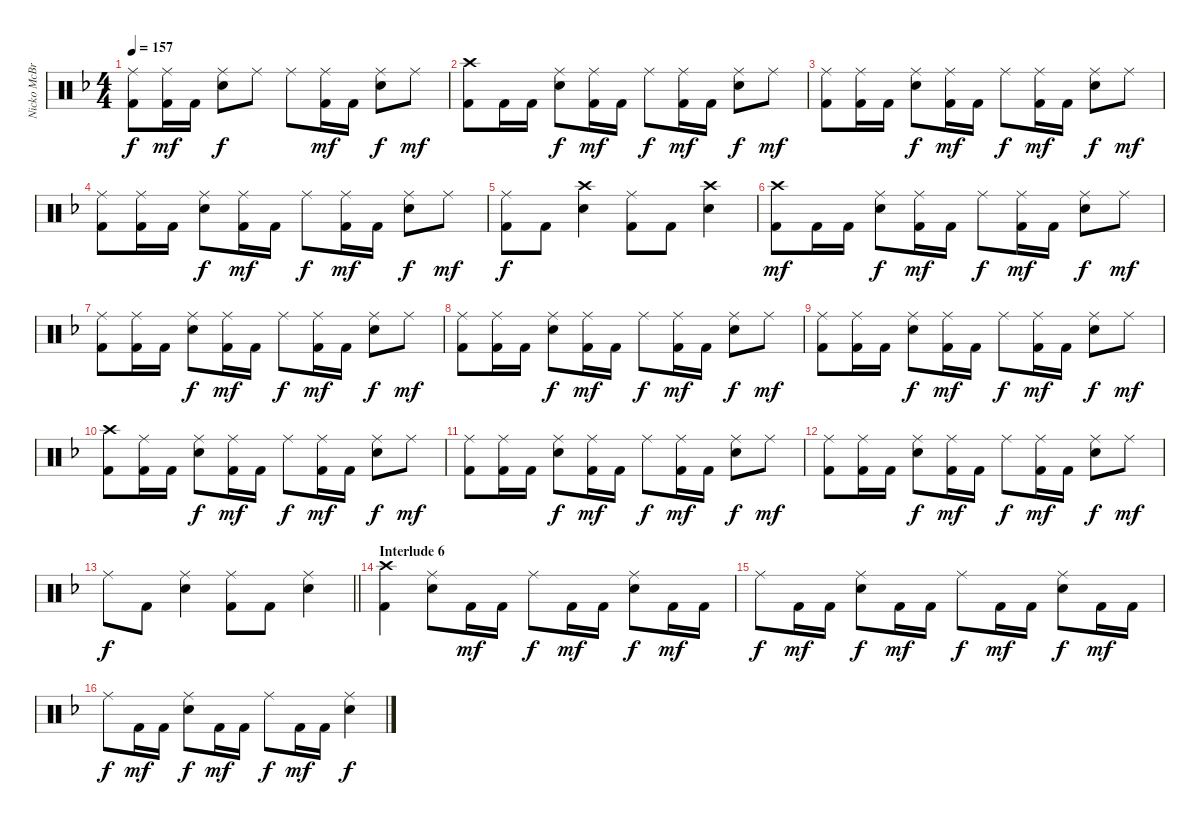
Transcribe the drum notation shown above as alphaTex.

\track ("Nicko McBrain" "Nicko McBr") {instrument percussion}
\staff {score}
\articulation defaults
\ts (4 4)
\tempo 157
\clef neutral
\ks f
("Ride (middle)" "Kick (hit) 2").8{dy f} ("Ride (middle)" "Kick (hit) 2").16{dy mf} "Kick (hit) 2".16 ("Ride (middle)" "Electric Snare (hit)").8{dy f} "Ride (middle)".8 "Ride (middle)".8 ("Ride (middle)" "Kick (hit) 2").16{dy mf} "Kick (hit) 2".16 ("Ride (middle)" "Electric Snare (hit)").8{dy f} "Ride (middle)".8{dy mf} |
("Crash high (hit)" "Kick (hit) 2").8 "Kick (hit) 2".16 "Kick (hit) 2".16 ("Ride (middle)" "Electric Snare (hit)").8{dy f} ("Ride (middle)" "Kick (hit) 2").16{dy mf} "Kick (hit) 2".16 "Ride (middle)".8{dy f} ("Ride (middle)" "Kick (hit) 2").16{dy mf} "Kick (hit) 2".16 ("Ride (middle)" "Electric Snare (hit)").8{dy f} "Ride (middle)".8{dy mf} |
("Ride (middle)" "Kick (hit) 2").8 ("Ride (middle)" "Kick (hit) 2").16 "Kick (hit) 2".16 ("Ride (middle)" "Electric Snare (hit)").8{dy f} ("Ride (middle)" "Kick (hit) 2").16{dy mf} "Kick (hit) 2".16 "Ride (middle)".8{dy f} ("Ride (middle)" "Kick (hit) 2").16{dy mf} "Kick (hit) 2".16 ("Ride (middle)" "Electric Snare (hit)").8{dy f} "Ride (middle)".8{dy mf} |
("Ride (middle)" "Kick (hit) 2").8 ("Ride (middle)" "Kick (hit) 2").16 "Kick (hit) 2".16 ("Ride (middle)" "Electric Snare (hit)").8{dy f} ("Ride (middle)" "Kick (hit) 2").16{dy mf} "Kick (hit) 2".16 "Ride (middle)".8{dy f} ("Ride (middle)" "Kick (hit) 2").16{dy mf} "Kick (hit) 2".16 ("Ride (middle)" "Electric Snare (hit)").8{dy f} "Ride (middle)".8{dy mf} |
("Ride (middle)" "Kick (hit) 2").8{dy f} "Kick (hit) 2".8 ("Crash high (hit)" "Electric Snare (hit)").4 ("Ride (middle)" "Kick (hit) 2").8 "Kick (hit) 2".8 ("Crash high (hit)" "Electric Snare (hit)").4 |
("Crash high (hit)" "Kick (hit) 2").8{dy mf} "Kick (hit) 2".16 "Kick (hit) 2".16 ("Ride (middle)" "Electric Snare (hit)").8{dy f} ("Ride (middle)" "Kick (hit) 2").16{dy mf} "Kick (hit) 2".16 "Ride (middle)".8{dy f} ("Ride (middle)" "Kick (hit) 2").16{dy mf} "Kick (hit) 2".16 ("Ride (middle)" "Electric Snare (hit)").8{dy f} "Ride (middle)".8{dy mf} |
("Ride (middle)" "Kick (hit) 2").8 ("Ride (middle)" "Kick (hit) 2").16 "Kick (hit) 2".16 ("Ride (middle)" "Electric Snare (hit)").8{dy f} ("Ride (middle)" "Kick (hit) 2").16{dy mf} "Kick (hit) 2".16 "Ride (middle)".8{dy f} ("Ride (middle)" "Kick (hit) 2").16{dy mf} "Kick (hit) 2".16 ("Ride (middle)" "Electric Snare (hit)").8{dy f} "Ride (middle)".8{dy mf} |
("Ride (middle)" "Kick (hit) 2").8 ("Ride (middle)" "Kick (hit) 2").16 "Kick (hit) 2".16 ("Ride (middle)" "Electric Snare (hit)").8{dy f} ("Ride (middle)" "Kick (hit) 2").16{dy mf} "Kick (hit) 2".16 "Ride (middle)".8{dy f} ("Ride (middle)" "Kick (hit) 2").16{dy mf} "Kick (hit) 2".16 ("Ride (middle)" "Electric Snare (hit)").8{dy f} "Ride (middle)".8{dy mf} |
("Ride (middle)" "Kick (hit) 2").8 ("Ride (middle)" "Kick (hit) 2").16 "Kick (hit) 2".16 ("Ride (middle)" "Electric Snare (hit)").8{dy f} ("Ride (middle)" "Kick (hit) 2").16{dy mf} "Kick (hit) 2".16 "Ride (middle)".8{dy f} ("Ride (middle)" "Kick (hit) 2").16{dy mf} "Kick (hit) 2".16 ("Ride (middle)" "Electric Snare (hit)").8{dy f} "Ride (middle)".8{dy mf} |
("Crash high (hit)" "Kick (hit) 2").8 ("Ride (middle)" "Kick (hit) 2").16 "Kick (hit) 2".16 ("Ride (middle)" "Electric Snare (hit)").8{dy f} ("Ride (middle)" "Kick (hit) 2").16{dy mf} "Kick (hit) 2".16 "Ride (middle)".8{dy f} ("Ride (middle)" "Kick (hit) 2").16{dy mf} "Kick (hit) 2".16 ("Ride (middle)" "Electric Snare (hit)").8{dy f} "Ride (middle)".8{dy mf} |
("Ride (middle)" "Kick (hit) 2").8 ("Ride (middle)" "Kick (hit) 2").16 "Kick (hit) 2".16 ("Ride (middle)" "Electric Snare (hit)").8{dy f} ("Ride (middle)" "Kick (hit) 2").16{dy mf} "Kick (hit) 2".16 "Ride (middle)".8{dy f} ("Ride (middle)" "Kick (hit) 2").16{dy mf} "Kick (hit) 2".16 ("Ride (middle)" "Electric Snare (hit)").8{dy f} "Ride (middle)".8{dy mf} |
("Ride (middle)" "Kick (hit) 2").8 ("Ride (middle)" "Kick (hit) 2").16 "Kick (hit) 2".16 ("Ride (middle)" "Electric Snare (hit)").8{dy f} ("Ride (middle)" "Kick (hit) 2").16{dy mf} "Kick (hit) 2".16 "Ride (middle)".8{dy f} ("Ride (middle)" "Kick (hit) 2").16{dy mf} "Kick (hit) 2".16 ("Ride (middle)" "Electric Snare (hit)").8{dy f} "Ride (middle)".8{dy mf} |
\barLineRight lightlight "Ride (middle)".8{dy f} "Kick (hit) 2".8
("Ride (middle)" "Electric Snare (hit)").4 ("Ride (middle)" "Kick (hit) 2").8 "Kick (hit) 2".8 ("Ride (middle)" "Electric Snare (hit)").4 |
\section ("" "Interlude 6")
("Crash high (hit)" "Kick (hit) 2").4 ("Ride (middle)" "Electric Snare (hit)").8 "Kick (hit) 2".16{dy mf} "Kick (hit) 2".16 "Ride (middle)".8{dy f} "Kick (hit) 2".16{dy mf} "Kick (hit) 2".16 ("Ride (middle)" "Electric Snare (hit)").8{dy f} "Kick (hit) 2".16{dy mf} "Kick (hit) 2".16 |
"Ride (middle)".8{dy f} "Kick (hit) 2".16{dy mf} "Kick (hit) 2".16 ("Ride (middle)" "Electric Snare (hit)").8{dy f} "Kick (hit) 2".16{dy mf} "Kick (hit) 2".16 "Ride (middle)".8{dy f} "Kick (hit) 2".16{dy mf} "Kick (hit) 2".16 ("Ride (middle)" "Electric Snare (hit)").8{dy f} "Kick (hit) 2".16{dy mf} "Kick (hit) 2".16 |
"Ride (middle)".8{dy f} "Kick (hit) 2".16{dy mf} "Kick (hit) 2".16 ("Ride (middle)" "Electric Snare (hit)").8{dy f} "Kick (hit) 2".16{dy mf} "Kick (hit) 2".16 "Ride (middle)".8{dy f} "Kick (hit) 2".16{dy mf} "Kick (hit) 2".16 ("Ride (middle)" "Electric Snare (hit)").4{dy f}
